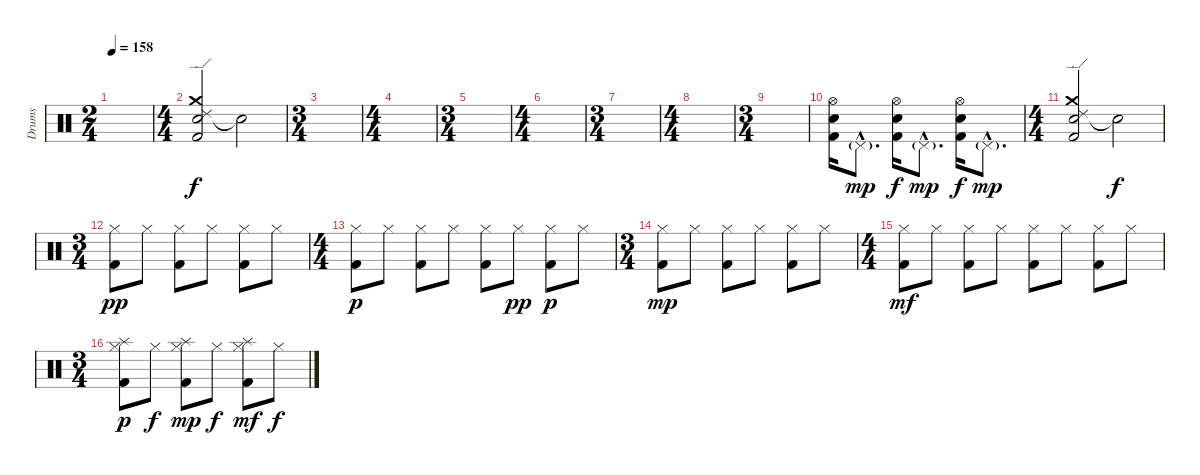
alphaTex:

\track ("Drums" "Drums") {instrument percussion}
\staff {score}
\articulation defaults
\ts (2 4)
\tempo 158
\clef neutral
\ks c
|
\ts (4 4)
("Ride (edge) 2" "Crash medium (hit)" "Snare (hit) 2" "Kick (hit) 2").2 "Snare (hit)"{t}.2{dy f} |
\ts (3 4)
|
\ts (4 4)
|
\ts (3 4)
|
\ts (4 4)
|
\ts (3 4)
|
\ts (4 4)
|
\ts (3 4)
|
("Hi-Hat (open)" "Snare (hit) 2" "Kick (hit) 2").16 "Pedal Hi-Hat (hit)"{g hac}.8{d dy mp} ("Hi-Hat (open)" "Snare (hit) 2" "Kick (hit) 2").16{dy f} "Pedal Hi-Hat (hit)"{g hac}.8{d dy mp} ("Hi-Hat (open)" "Snare (hit) 2" "Kick (hit) 2").16{dy f} "Pedal Hi-Hat (hit)"{g hac}.8{d dy mp} |
\ts (4 4)
("Ride (edge) 2" "Crash medium (hit)" "Snare (hit) 2" "Kick (hit) 2").2 "Snare (hit)"{t}.2{dy f} |
\ts (3 4)
("Hi-Hat (closed)" "Kick (hit) 2").8{dy pp} "Hi-Hat (closed)".8 ("Hi-Hat (closed)" "Kick (hit) 2").8 "Hi-Hat (closed)".8 ("Hi-Hat (closed)" "Kick (hit) 2").8 "Hi-Hat (closed)".8 |
\ts (4 4)
("Hi-Hat (closed)" "Kick (hit) 2").8{dy p} "Hi-Hat (closed)".8 ("Hi-Hat (closed)" "Kick (hit) 2").8 "Hi-Hat (closed)".8 ("Hi-Hat (closed)" "Kick (hit) 2").8 "Hi-Hat (closed)".8{dy pp} ("Hi-Hat (closed)" "Kick (hit) 2").8{dy p} "Hi-Hat (closed)".8 |
\ts (3 4)
("Hi-Hat (closed)" "Kick (hit) 2").8{dy mp} "Hi-Hat (closed)".8 ("Hi-Hat (closed)" "Kick (hit) 2").8 "Hi-Hat (closed)".8 ("Hi-Hat (closed)" "Kick (hit) 2").8 "Hi-Hat (closed)".8 |
\ts (4 4)
("Hi-Hat (closed)" "Kick (hit) 2").8{dy mf} "Hi-Hat (closed)".8 ("Hi-Hat (closed)" "Kick (hit) 2").8 "Hi-Hat (closed)".8 ("Hi-Hat (closed)" "Kick (hit) 2").8 "Hi-Hat (closed)".8 ("Hi-Hat (closed)" "Kick (hit) 2").8 "Hi-Hat (closed)".8 |
\ts (3 4)
("Hi-Hat (closed)" "Splash (hit)" "Kick (hit) 2").8{dy p} "Hi-Hat (closed)".8{dy f} ("Hi-Hat (closed)" "Splash (hit)" "Kick (hit) 2").8{dy mp} "Hi-Hat (closed)".8{dy f} ("Hi-Hat (closed)" "Splash (hit)" "Kick (hit) 2").8{dy mf} "Hi-Hat (closed)".8{dy f}
